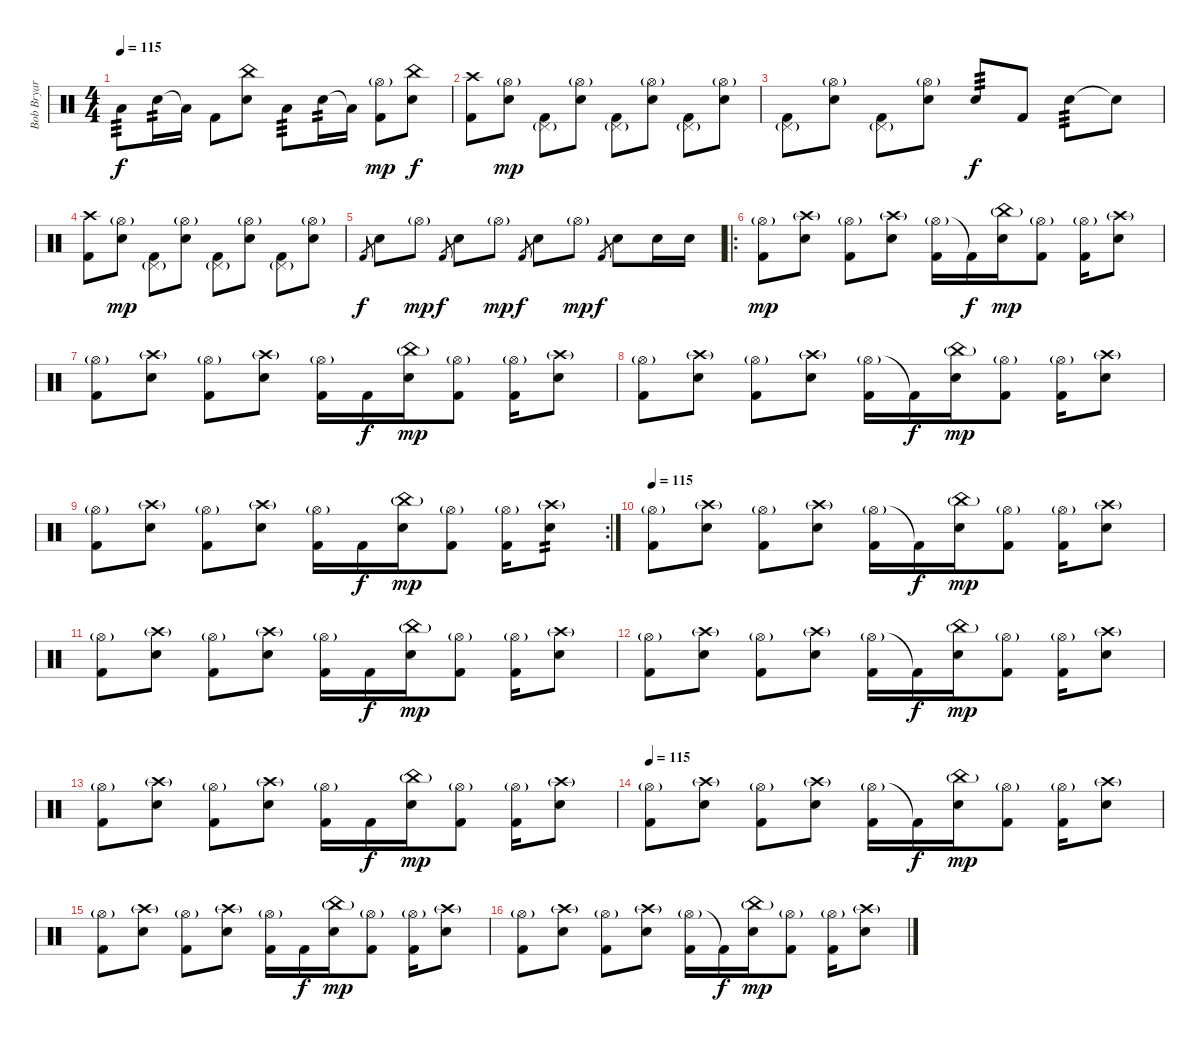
\track ("Bob Bryar [Drums]" "Bob Bryar ") {instrument percussion}
\staff {score}
\articulation defaults
\ts (4 4)
\tempo 115
\clef neutral
\ks c "Low Tom (hit)".8{tp 3 dy f} "Electric Snare (hit)".16{tp 2} "Low Tom (hit)"{t}.16 "Kick (hit) 2".8
("China (hit)" "Electric Snare (hit)").8 "Low Tom (hit)".8{tp 3} "Electric Snare (hit)".16{tp 2} "Low Tom (hit)"{t}.16 ("Hi-Hat (open)"{g} "Kick (hit) 2").8{dy mp} ("China (hit)" "Electric Snare (hit)").8{dy f} |
("Crash high (hit)" "Kick (hit) 2").8 ("Hi-Hat (open)"{g} "Electric Snare (hit)").8{dy mp} ("Pedal Hi-Hat (hit)"{g} "Kick (hit) 2").8 ("Hi-Hat (open)"{g} "Electric Snare (hit)").8 ("Pedal Hi-Hat (hit)"{g} "Kick (hit) 2").8 ("Hi-Hat (open)"{g} "Electric Snare (hit)").8 ("Pedal Hi-Hat (hit)"{g} "Kick (hit) 2").8 ("Hi-Hat (open)"{g} "Electric Snare (hit)").8 |
("Pedal Hi-Hat (hit)"{g} "Kick (hit) 2").8 ("Hi-Hat (open)"{g} "Electric Snare (hit)").8 ("Pedal Hi-Hat (hit)"{g} "Kick (hit) 2").8 ("Hi-Hat (open)"{g} "Electric Snare (hit)").8 "Electric Snare (hit)".8{tp 3 dy f} "Kick (hit) 2".8 "Electric Snare (hit)".8{tp 3} "Snare (hit)"{t}.8 |
("Crash high (hit)" "Kick (hit) 2").8 ("Hi-Hat (open)"{g} "Electric Snare (hit)").8{dy mp} ("Pedal Hi-Hat (hit)"{g} "Kick (hit) 2").8 ("Hi-Hat (open)"{g} "Electric Snare (hit)").8 ("Pedal Hi-Hat (hit)"{g} "Kick (hit) 2").8 ("Hi-Hat (open)"{g} "Electric Snare (hit)").8 ("Pedal Hi-Hat (hit)"{g} "Kick (hit) 2").8 ("Hi-Hat (open)"{g} "Electric Snare (hit)").8 |
"Kick (hit) 2".8{gr dy f} "Electric Snare (hit)".8 "Hi-Hat (open)"{g}.8{dy mp} "Kick (hit) 2".8{gr dy f} "Electric Snare (hit)".8 "Hi-Hat (open)"{g}.8{dy mp} "Kick (hit) 2".8{gr dy f} "Electric Snare (hit)".8 "Hi-Hat (open)"{g}.8{dy mp} "Kick (hit) 2".8{gr dy f} "Electric Snare (hit)".8 "Electric Snare (hit)".16 "Electric Snare (hit)".16 |
\ro
("Hi-Hat (open)"{g} "Kick (hit) 2").8{dy mp} ("Crash high (hit)"{g} "Electric Snare (hit)").8 ("Hi-Hat (open)"{g} "Kick (hit) 2").8 ("Crash high (hit)"{g} "Electric Snare (hit)").8 ("Hi-Hat (open)"{g} "Kick (hit) 2").16 "Kick (hit) 2"{t}.16{dy f} ("China (hit)"{g} "Electric Snare (hit)").16{dy mp} ("Hi-Hat (open)"{g} "Kick (hit) 2").8 ("Hi-Hat (open)"{g} "Kick (hit) 2").16 ("Crash high (hit)"{g} "Electric Snare (hit)").8 |
("Hi-Hat (open)"{g} "Kick (hit) 2").8 ("Crash high (hit)"{g} "Electric Snare (hit)").8 ("Hi-Hat (open)"{g} "Kick (hit) 2").8 ("Crash high (hit)"{g} "Electric Snare (hit)").8 ("Hi-Hat (open)"{g} "Kick (hit) 2").16 "Kick (hit) 2".16{dy f} ("China (hit)"{g} "Electric Snare (hit)").16{dy mp} ("Hi-Hat (open)"{g} "Kick (hit) 2").8 ("Hi-Hat (open)"{g} "Kick (hit) 2").16 ("Crash high (hit)"{g} "Electric Snare (hit)").8 |
("Hi-Hat (open)"{g} "Kick (hit) 2").8 ("Crash high (hit)"{g} "Electric Snare (hit)").8 ("Hi-Hat (open)"{g} "Kick (hit) 2").8 ("Crash high (hit)"{g} "Electric Snare (hit)").8 ("Hi-Hat (open)"{g} "Kick (hit) 2").16 "Kick (hit) 2"{t}.16{dy f} ("China (hit)"{g} "Electric Snare (hit)").16{dy mp} ("Hi-Hat (open)"{g} "Kick (hit) 2").8 ("Hi-Hat (open)"{g} "Kick (hit) 2").16 ("Crash high (hit)"{g} "Electric Snare (hit)").8 |
\rc 2
("Hi-Hat (open)"{g} "Kick (hit) 2").8 ("Crash high (hit)"{g} "Electric Snare (hit)").8 ("Hi-Hat (open)"{g} "Kick (hit) 2").8 ("Crash high (hit)"{g} "Electric Snare (hit)").8 ("Hi-Hat (open)"{g} "Kick (hit) 2").16 "Kick (hit) 2".16{dy f} ("China (hit)"{g} "Electric Snare (hit)").16{dy mp} ("Hi-Hat (open)"{g} "Kick (hit) 2").8 ("Hi-Hat (open)"{g} "Kick (hit) 2").16 ("Crash high (hit)"{g} "Electric Snare (hit)").8{tp 2} |
\tempo 115
("Hi-Hat (open)"{g} "Kick (hit) 2").8 ("Crash high (hit)"{g} "Electric Snare (hit)").8 ("Hi-Hat (open)"{g} "Kick (hit) 2").8 ("Crash high (hit)"{g} "Electric Snare (hit)").8 ("Hi-Hat (open)"{g} "Kick (hit) 2").16 "Kick (hit) 2"{t}.16{dy f} ("China (hit)"{g} "Electric Snare (hit)").16{dy mp} ("Hi-Hat (open)"{g} "Kick (hit) 2").8 ("Hi-Hat (open)"{g} "Kick (hit) 2").16 ("Crash high (hit)"{g} "Electric Snare (hit)").8 |
("Hi-Hat (open)"{g} "Kick (hit) 2").8 ("Crash high (hit)"{g} "Electric Snare (hit)").8 ("Hi-Hat (open)"{g} "Kick (hit) 2").8 ("Crash high (hit)"{g} "Electric Snare (hit)").8 ("Hi-Hat (open)"{g} "Kick (hit) 2").16 "Kick (hit) 2".16{dy f} ("China (hit)"{g} "Electric Snare (hit)").16{dy mp} ("Hi-Hat (open)"{g} "Kick (hit) 2").8 ("Hi-Hat (open)"{g} "Kick (hit) 2").16 ("Crash high (hit)"{g} "Electric Snare (hit)").8 |
("Hi-Hat (open)"{g} "Kick (hit) 2").8 ("Crash high (hit)"{g} "Electric Snare (hit)").8 ("Hi-Hat (open)"{g} "Kick (hit) 2").8 ("Crash high (hit)"{g} "Electric Snare (hit)").8 ("Hi-Hat (open)"{g} "Kick (hit) 2").16 "Kick (hit) 2"{t}.16{dy f} ("China (hit)"{g} "Electric Snare (hit)").16{dy mp} ("Hi-Hat (open)"{g} "Kick (hit) 2").8 ("Hi-Hat (open)"{g} "Kick (hit) 2").16 ("Crash high (hit)"{g} "Electric Snare (hit)").8 |
("Hi-Hat (open)"{g} "Kick (hit) 2").8 ("Crash high (hit)"{g} "Electric Snare (hit)").8 ("Hi-Hat (open)"{g} "Kick (hit) 2").8 ("Crash high (hit)"{g} "Electric Snare (hit)").8 ("Hi-Hat (open)"{g} "Kick (hit) 2").16 "Kick (hit) 2".16{dy f} ("China (hit)"{g} "Electric Snare (hit)").16{dy mp} ("Hi-Hat (open)"{g} "Kick (hit) 2").8 ("Hi-Hat (open)"{g} "Kick (hit) 2").16 ("Crash high (hit)"{g} "Electric Snare (hit)").8 |
\tempo 115
("Hi-Hat (open)"{g} "Kick (hit) 2").8 ("Crash high (hit)"{g} "Electric Snare (hit)").8 ("Hi-Hat (open)"{g} "Kick (hit) 2").8 ("Crash high (hit)"{g} "Electric Snare (hit)").8 ("Hi-Hat (open)"{g} "Kick (hit) 2").16 "Kick (hit) 2"{t}.16{dy f} ("China (hit)"{g} "Electric Snare (hit)").16{dy mp} ("Hi-Hat (open)"{g} "Kick (hit) 2").8 ("Hi-Hat (open)"{g} "Kick (hit) 2").16 ("Crash high (hit)"{g} "Electric Snare (hit)").8 |
("Hi-Hat (open)"{g} "Kick (hit) 2").8 ("Crash high (hit)"{g} "Electric Snare (hit)").8 ("Hi-Hat (open)"{g} "Kick (hit) 2").8 ("Crash high (hit)"{g} "Electric Snare (hit)").8 ("Hi-Hat (open)"{g} "Kick (hit) 2").16 "Kick (hit) 2".16{dy f} ("China (hit)"{g} "Electric Snare (hit)").16{dy mp} ("Hi-Hat (open)"{g} "Kick (hit) 2").8 ("Hi-Hat (open)"{g} "Kick (hit) 2").16 ("Crash high (hit)"{g} "Electric Snare (hit)").8 |
("Hi-Hat (open)"{g} "Kick (hit) 2").8 ("Crash high (hit)"{g} "Electric Snare (hit)").8 ("Hi-Hat (open)"{g} "Kick (hit) 2").8 ("Crash high (hit)"{g} "Electric Snare (hit)").8 ("Hi-Hat (open)"{g} "Kick (hit) 2").16 "Kick (hit) 2"{t}.16{dy f} ("China (hit)"{g} "Electric Snare (hit)").16{dy mp} ("Hi-Hat (open)"{g} "Kick (hit) 2").8 ("Hi-Hat (open)"{g} "Kick (hit) 2").16 ("Crash high (hit)"{g} "Electric Snare (hit)").8
